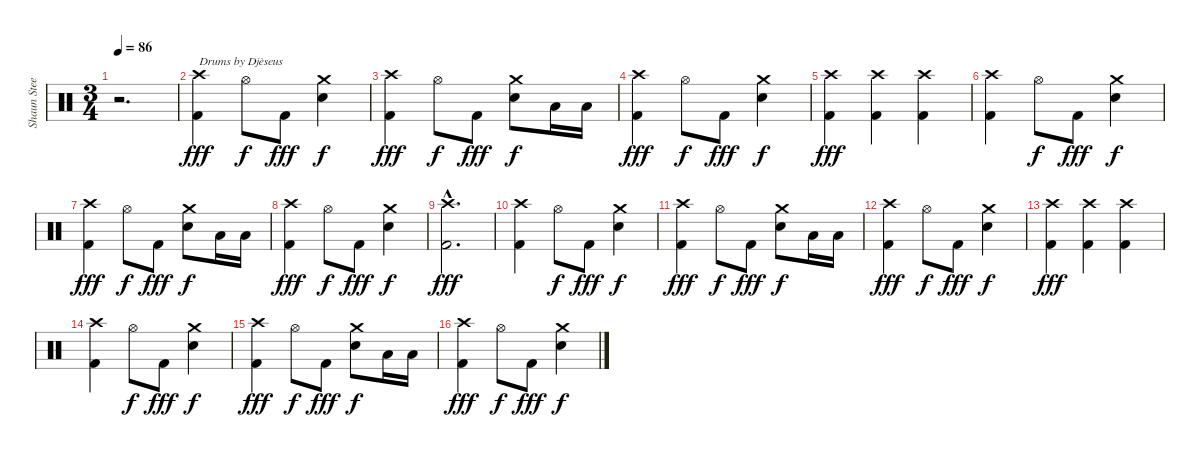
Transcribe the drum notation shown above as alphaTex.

\track ("Shaun Steels (Drums)" "Shaun Stee") {instrument percussion}
\staff {score}
\articulation defaults
\ts (3 4)
\tempo 86
\clef neutral
\ks c
r.2{d dy fff} |
("Crash high (hit)" "Kick (hit) 2").4{txt "Drums by Djèseus"} "Hi-Hat (open)".8{dy f} "Kick (hit) 2".8{dy fff} ("Crash medium (hit)" "Snare (hit) 2").4{dy f} |
("Crash high (hit)" "Kick (hit) 2").4{dy fff} "Hi-Hat (open)".8{dy f} "Kick (hit) 2".8{dy fff} ("Crash medium (hit)" "Snare (hit) 2").8{dy f} "Low Tom (hit)".16 "Low Tom (hit)".16 |
("Crash high (hit)" "Kick (hit) 2").4{dy fff} "Hi-Hat (open)".8{dy f} "Kick (hit) 2".8{dy fff} ("Crash medium (hit)" "Snare (hit) 2").4{dy f} |
("Crash high (hit)" "Kick (hit) 2").4{dy fff} ("Crash high (hit)" "Kick (hit) 2").4 ("Crash high (hit)" "Kick (hit) 2").4 |
("Crash high (hit)" "Kick (hit) 2").4 "Hi-Hat (open)".8{dy f} "Kick (hit) 2".8{dy fff} ("Crash medium (hit)" "Snare (hit) 2").4{dy f} |
("Crash high (hit)" "Kick (hit) 2").4{dy fff} "Hi-Hat (open)".8{dy f} "Kick (hit) 2".8{dy fff} ("Crash medium (hit)" "Snare (hit) 2").8{dy f} "Low Tom (hit)".16 "Low Tom (hit)".16 |
("Crash high (hit)" "Kick (hit) 2").4{dy fff} "Hi-Hat (open)".8{dy f} "Kick (hit) 2".8{dy fff} ("Crash medium (hit)" "Snare (hit) 2").4{dy f} |
("Crash high (hit)"{hac} "Kick (hit) 2"{hac}).2{d dy fff} |
("Crash high (hit)" "Kick (hit) 2").4 "Hi-Hat (open)".8{dy f} "Kick (hit) 2".8{dy fff} ("Crash medium (hit)" "Snare (hit) 2").4{dy f} |
("Crash high (hit)" "Kick (hit) 2").4{dy fff} "Hi-Hat (open)".8{dy f} "Kick (hit) 2".8{dy fff} ("Crash medium (hit)" "Snare (hit) 2").8{dy f} "Low Tom (hit)".16 "Low Tom (hit)".16 |
("Crash high (hit)" "Kick (hit) 2").4{dy fff} "Hi-Hat (open)".8{dy f} "Kick (hit) 2".8{dy fff} ("Crash medium (hit)" "Snare (hit) 2").4{dy f} |
("Crash high (hit)" "Kick (hit) 2").4{dy fff} ("Crash high (hit)" "Kick (hit) 2").4 ("Crash high (hit)" "Kick (hit) 2").4 |
("Crash high (hit)" "Kick (hit) 2").4 "Hi-Hat (open)".8{dy f} "Kick (hit) 2".8{dy fff} ("Crash medium (hit)" "Snare (hit) 2").4{dy f} |
("Crash high (hit)" "Kick (hit) 2").4{dy fff} "Hi-Hat (open)".8{dy f} "Kick (hit) 2".8{dy fff} ("Crash medium (hit)" "Snare (hit) 2").8{dy f} "Low Tom (hit)".16 "Low Tom (hit)".16 |
("Crash high (hit)" "Kick (hit) 2").4{dy fff} "Hi-Hat (open)".8{dy f} "Kick (hit) 2".8{dy fff} ("Crash medium (hit)" "Snare (hit) 2").4{dy f}
